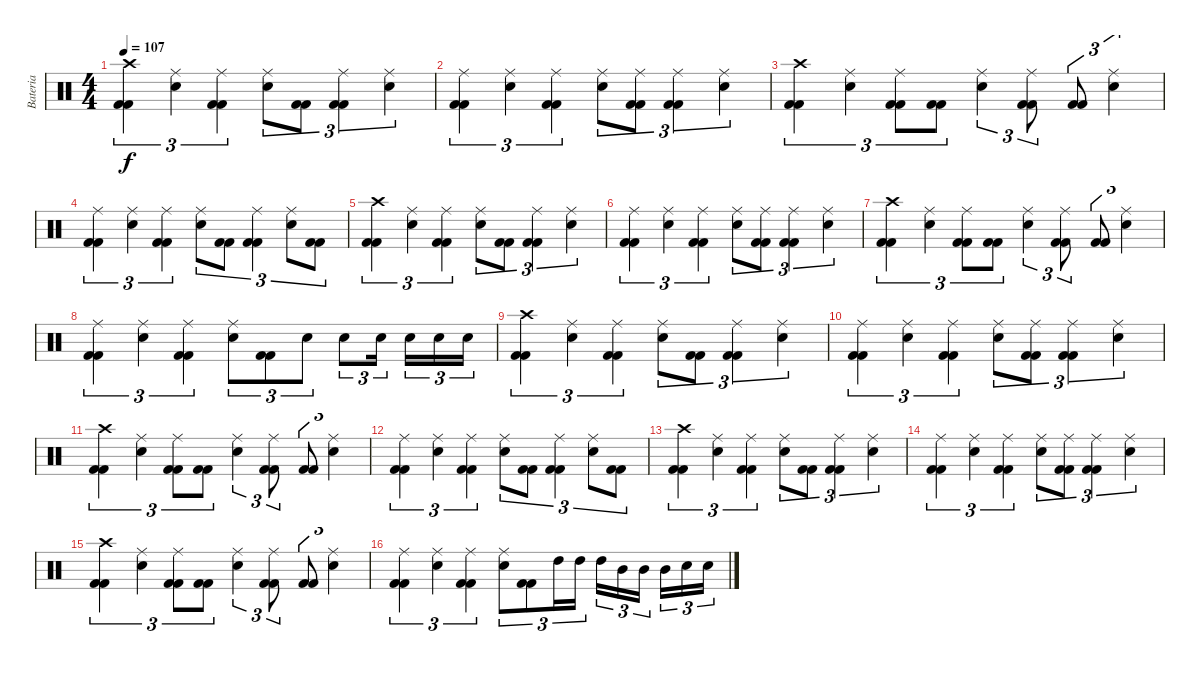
\track ("Bateria" "Bateria") {instrument percussion}
\staff {score}
\articulation defaults
\ts (4 4)
\tempo 107
\clef neutral
\ks c
("Kick (hit) 2" "Kick (hit) 2" "Crash high (hit)").4{tu (3 2) dy f} ("Snare (hit) 2" "Ride (middle)").4{tu (3 2)} ("Kick (hit) 2" "Kick (hit) 2" "Ride (middle)").4{tu (3 2)} ("Snare (hit) 2" "Ride (middle)").8{tu (3 2)} ("Kick (hit) 2" "Kick (hit) 2").8{tu (3 2)} ("Kick (hit) 2" "Kick (hit) 2" "Ride (middle)").4{tu (3 2)} ("Snare (hit) 2" "Ride (middle)").4{tu (3 2)} |
("Kick (hit) 2" "Kick (hit) 2" "Ride (middle)").4{tu (3 2)} ("Snare (hit) 2" "Ride (middle)").4{tu (3 2)} ("Kick (hit) 2" "Kick (hit) 2" "Ride (middle)").4{tu (3 2)} ("Snare (hit) 2" "Ride (middle)").8{tu (3 2)} ("Kick (hit) 2" "Kick (hit) 2" "Ride (middle)").8{tu (3 2)} ("Kick (hit) 2" "Kick (hit) 2" "Ride (middle)").4{tu (3 2)} ("Snare (hit) 2" "Ride (middle)").4{tu (3 2)} |
("Kick (hit) 2" "Kick (hit) 2" "Crash high (hit)").4{tu (3 2)} ("Snare (hit) 2" "Ride (middle)").4{tu (3 2)} ("Kick (hit) 2" "Kick (hit) 2" "Ride (middle)").8{tu (3 2)} ("Kick (hit) 2" "Kick (hit) 2").8{tu (3 2)} ("Snare (hit) 2" "Ride (middle)").4{tu (3 2)} ("Kick (hit) 2" "Kick (hit) 2" "Ride (middle)").8{tu (3 2)} ("Kick (hit) 2" "Kick (hit) 2").8{tu (3 2)} ("Snare (hit) 2" "Ride (middle)").4{tu (3 2)} |
("Kick (hit) 2" "Kick (hit) 2" "Ride (middle)").4{tu (3 2)} ("Snare (hit) 2" "Ride (middle)").4{tu (3 2)} ("Kick (hit) 2" "Kick (hit) 2" "Ride (middle)").4{tu (3 2)} ("Snare (hit) 2" "Ride (middle)").8{tu (3 2)} ("Kick (hit) 2" "Kick (hit) 2").8{tu (3 2)} ("Kick (hit) 2" "Kick (hit) 2" "Ride (middle)").4{tu (3 2)} ("Snare (hit) 2" "Ride (middle)").8{tu (3 2)} ("Kick (hit) 2" "Kick (hit) 2").8{tu (3 2)} |
("Kick (hit) 2" "Kick (hit) 2" "Crash high (hit)").4{tu (3 2)} ("Snare (hit) 2" "Ride (middle)").4{tu (3 2)} ("Kick (hit) 2" "Kick (hit) 2" "Ride (middle)").4{tu (3 2)} ("Snare (hit) 2" "Ride (middle)").8{tu (3 2)} ("Kick (hit) 2" "Kick (hit) 2").8{tu (3 2)} ("Kick (hit) 2" "Kick (hit) 2" "Ride (middle)").4{tu (3 2)} ("Snare (hit) 2" "Ride (middle)").4{tu (3 2)} |
("Kick (hit) 2" "Kick (hit) 2" "Ride (middle)").4{tu (3 2)} ("Snare (hit) 2" "Ride (middle)").4{tu (3 2)} ("Kick (hit) 2" "Kick (hit) 2" "Ride (middle)").4{tu (3 2)} ("Snare (hit) 2" "Ride (middle)").8{tu (3 2)} ("Kick (hit) 2" "Kick (hit) 2" "Ride (middle)").8{tu (3 2)} ("Kick (hit) 2" "Kick (hit) 2" "Ride (middle)").4{tu (3 2)} ("Snare (hit) 2" "Ride (middle)").4{tu (3 2)} |
("Kick (hit) 2" "Kick (hit) 2" "Crash high (hit)").4{tu (3 2)} ("Snare (hit) 2" "Ride (middle)").4{tu (3 2)} ("Kick (hit) 2" "Kick (hit) 2" "Ride (middle)").8{tu (3 2)} ("Kick (hit) 2" "Kick (hit) 2").8{tu (3 2)} ("Snare (hit) 2" "Ride (middle)").4{tu (3 2)} ("Kick (hit) 2" "Kick (hit) 2" "Ride (middle)").8{tu (3 2)} ("Kick (hit) 2" "Kick (hit) 2").8{tu (3 2)} ("Snare (hit) 2" "Ride (middle)").4{tu (3 2)} |
("Kick (hit) 2" "Kick (hit) 2" "Ride (middle)").4{tu (3 2)} ("Snare (hit) 2" "Ride (middle)").4{tu (3 2)} ("Kick (hit) 2" "Kick (hit) 2" "Ride (middle)").4{tu (3 2)} ("Snare (hit) 2" "Ride (middle)").8{tu (3 2)} ("Kick (hit) 2" "Kick (hit) 2").8{tu (3 2)} "Snare (hit) 2".8{tu (3 2)} "Snare (hit) 2".8{tu (3 2)} "Snare (hit) 2".16{tu (3 2)} "Snare (hit) 2".16{tu (3 2)} "Snare (hit) 2".16{tu (3 2)} "Snare (hit) 2".16{tu (3 2)} |
("Kick (hit) 2" "Kick (hit) 2" "Crash high (hit)").4{tu (3 2)} ("Snare (hit) 2" "Ride (middle)").4{tu (3 2)} ("Kick (hit) 2" "Kick (hit) 2" "Ride (middle)").4{tu (3 2)} ("Snare (hit) 2" "Ride (middle)").8{tu (3 2)} ("Kick (hit) 2" "Kick (hit) 2").8{tu (3 2)} ("Kick (hit) 2" "Kick (hit) 2" "Ride (middle)").4{tu (3 2)} ("Snare (hit) 2" "Ride (middle)").4{tu (3 2)} |
("Kick (hit) 2" "Kick (hit) 2" "Ride (middle)").4{tu (3 2)} ("Snare (hit) 2" "Ride (middle)").4{tu (3 2)} ("Kick (hit) 2" "Kick (hit) 2" "Ride (middle)").4{tu (3 2)} ("Snare (hit) 2" "Ride (middle)").8{tu (3 2)} ("Kick (hit) 2" "Kick (hit) 2" "Ride (middle)").8{tu (3 2)} ("Kick (hit) 2" "Kick (hit) 2" "Ride (middle)").4{tu (3 2)} ("Snare (hit) 2" "Ride (middle)").4{tu (3 2)} |
("Kick (hit) 2" "Kick (hit) 2" "Crash high (hit)").4{tu (3 2)} ("Snare (hit) 2" "Ride (middle)").4{tu (3 2)} ("Kick (hit) 2" "Kick (hit) 2" "Ride (middle)").8{tu (3 2)} ("Kick (hit) 2" "Kick (hit) 2").8{tu (3 2)} ("Snare (hit) 2" "Ride (middle)").4{tu (3 2)} ("Kick (hit) 2" "Kick (hit) 2" "Ride (middle)").8{tu (3 2)} ("Kick (hit) 2" "Kick (hit) 2").8{tu (3 2)} ("Snare (hit) 2" "Ride (middle)").4{tu (3 2)} |
("Kick (hit) 2" "Kick (hit) 2" "Ride (middle)").4{tu (3 2)} ("Snare (hit) 2" "Ride (middle)").4{tu (3 2)} ("Kick (hit) 2" "Kick (hit) 2" "Ride (middle)").4{tu (3 2)} ("Snare (hit) 2" "Ride (middle)").8{tu (3 2)} ("Kick (hit) 2" "Kick (hit) 2").8{tu (3 2)} ("Kick (hit) 2" "Kick (hit) 2" "Ride (middle)").4{tu (3 2)} ("Snare (hit) 2" "Ride (middle)").8{tu (3 2)} ("Kick (hit) 2" "Kick (hit) 2").8{tu (3 2)} |
("Kick (hit) 2" "Kick (hit) 2" "Crash high (hit)").4{tu (3 2)} ("Snare (hit) 2" "Ride (middle)").4{tu (3 2)} ("Kick (hit) 2" "Kick (hit) 2" "Ride (middle)").4{tu (3 2)} ("Snare (hit) 2" "Ride (middle)").8{tu (3 2)} ("Kick (hit) 2" "Kick (hit) 2").8{tu (3 2)} ("Kick (hit) 2" "Kick (hit) 2" "Ride (middle)").4{tu (3 2)} ("Snare (hit) 2" "Ride (middle)").4{tu (3 2)} |
("Kick (hit) 2" "Kick (hit) 2" "Ride (middle)").4{tu (3 2)} ("Snare (hit) 2" "Ride (middle)").4{tu (3 2)} ("Kick (hit) 2" "Kick (hit) 2" "Ride (middle)").4{tu (3 2)} ("Snare (hit) 2" "Ride (middle)").8{tu (3 2)} ("Kick (hit) 2" "Kick (hit) 2" "Ride (middle)").8{tu (3 2)} ("Kick (hit) 2" "Kick (hit) 2" "Ride (middle)").4{tu (3 2)} ("Snare (hit) 2" "Ride (middle)").4{tu (3 2)} |
("Kick (hit) 2" "Kick (hit) 2" "Crash high (hit)").4{tu (3 2)} ("Snare (hit) 2" "Ride (middle)").4{tu (3 2)} ("Kick (hit) 2" "Kick (hit) 2" "Ride (middle)").8{tu (3 2)} ("Kick (hit) 2" "Kick (hit) 2").8{tu (3 2)} ("Snare (hit) 2" "Ride (middle)").4{tu (3 2)} ("Kick (hit) 2" "Kick (hit) 2" "Ride (middle)").8{tu (3 2)} ("Kick (hit) 2" "Kick (hit) 2").8{tu (3 2)} ("Snare (hit) 2" "Ride (middle)").4{tu (3 2)} |
("Kick (hit) 2" "Kick (hit) 2" "Ride (middle)").4{tu (3 2)} ("Snare (hit) 2" "Ride (middle)").4{tu (3 2)} ("Kick (hit) 2" "Kick (hit) 2" "Ride (middle)").4{tu (3 2)} ("Snare (hit) 2" "Ride (middle)").8{tu (3 2)} ("Kick (hit) 2" "Kick (hit) 2").8{tu (3 2)} "High Tom (hit)".16{tu (3 2)} "High Tom (hit)".16{tu (3 2)} "High Tom (hit)".16{tu (3 2)} "Mid Tom (hit)".16{tu (3 2)} "Mid Tom (hit)".16{tu (3 2)} "Mid Tom (hit)".16{tu (3 2)} "Snare (hit) 2".16{tu (3 2)} "Snare (hit) 2".16{tu (3 2)}
